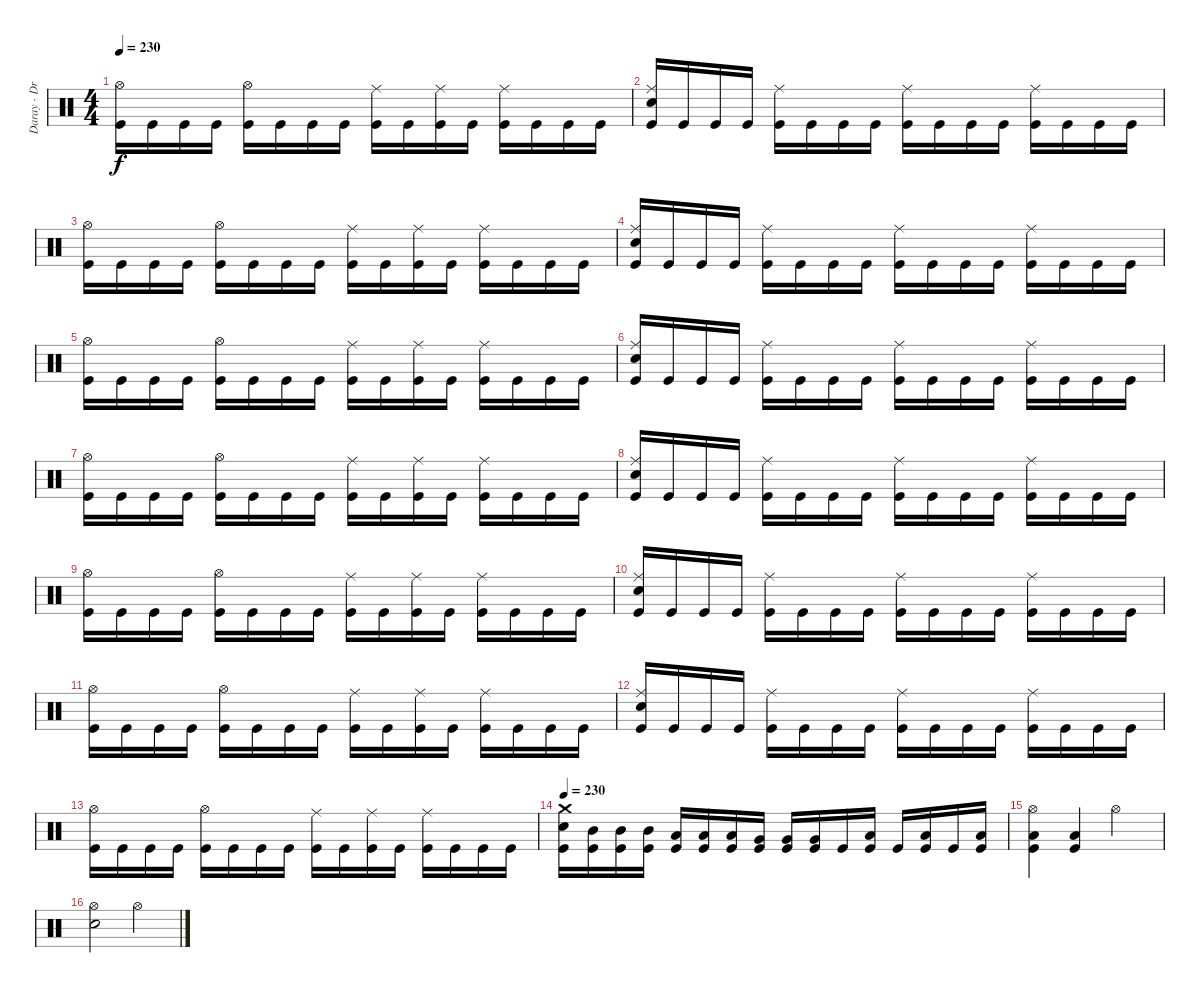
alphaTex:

\track ("Daray - Drums" "Daray - Dr") {instrument percussion}
\staff {score}
\articulation defaults
\ts (4 4)
\tempo 230
\clef neutral
\ks c
("Hi-Hat (open)" "Kick (hit)").16{dy f} "Kick (hit)".16 "Kick (hit)".16 "Kick (hit)".16 ("Hi-Hat (open)" "Kick (hit)").16 "Kick (hit)".16 "Kick (hit)".16 "Kick (hit)".16 ("Ride (middle)" "Kick (hit)").16 "Kick (hit)".16 ("Ride (middle)" "Kick (hit)").16 "Kick (hit)".16 ("Ride (middle)" "Kick (hit)").16 "Kick (hit)".16 "Kick (hit)".16 "Kick (hit)".16 |
("Ride (middle)" "Electric Snare (hit)" "Kick (hit)").16 "Kick (hit)".16 "Kick (hit)".16 "Kick (hit)".16 ("Ride (middle)" "Kick (hit)").16 "Kick (hit)".16 "Kick (hit)".16 "Kick (hit)".16 ("Ride (middle)" "Kick (hit)").16 "Kick (hit)".16 "Kick (hit)".16 "Kick (hit)".16 ("Ride (middle)" "Kick (hit)").16 "Kick (hit)".16 "Kick (hit)".16 "Kick (hit)".16 |
("Hi-Hat (open)" "Kick (hit)").16 "Kick (hit)".16 "Kick (hit)".16 "Kick (hit)".16 ("Hi-Hat (open)" "Kick (hit)").16 "Kick (hit)".16 "Kick (hit)".16 "Kick (hit)".16 ("Ride (middle)" "Kick (hit)").16 "Kick (hit)".16 ("Ride (middle)" "Kick (hit)").16 "Kick (hit)".16 ("Ride (middle)" "Kick (hit)").16 "Kick (hit)".16 "Kick (hit)".16 "Kick (hit)".16 |
("Ride (middle)" "Electric Snare (hit)" "Kick (hit)").16 "Kick (hit)".16 "Kick (hit)".16 "Kick (hit)".16 ("Ride (middle)" "Kick (hit)").16 "Kick (hit)".16 "Kick (hit)".16 "Kick (hit)".16 ("Ride (middle)" "Kick (hit)").16 "Kick (hit)".16 "Kick (hit)".16 "Kick (hit)".16 ("Ride (middle)" "Kick (hit)").16 "Kick (hit)".16 "Kick (hit)".16 "Kick (hit)".16 |
("Hi-Hat (open)" "Kick (hit)").16 "Kick (hit)".16 "Kick (hit)".16 "Kick (hit)".16 ("Hi-Hat (open)" "Kick (hit)").16 "Kick (hit)".16 "Kick (hit)".16 "Kick (hit)".16 ("Ride (middle)" "Kick (hit)").16 "Kick (hit)".16 ("Ride (middle)" "Kick (hit)").16 "Kick (hit)".16 ("Ride (middle)" "Kick (hit)").16 "Kick (hit)".16 "Kick (hit)".16 "Kick (hit)".16 |
("Ride (middle)" "Electric Snare (hit)" "Kick (hit)").16 "Kick (hit)".16 "Kick (hit)".16 "Kick (hit)".16 ("Ride (middle)" "Kick (hit)").16 "Kick (hit)".16 "Kick (hit)".16 "Kick (hit)".16 ("Ride (middle)" "Kick (hit)").16 "Kick (hit)".16 "Kick (hit)".16 "Kick (hit)".16 ("Ride (middle)" "Kick (hit)").16 "Kick (hit)".16 "Kick (hit)".16 "Kick (hit)".16 |
("Hi-Hat (open)" "Kick (hit)").16 "Kick (hit)".16 "Kick (hit)".16 "Kick (hit)".16 ("Hi-Hat (open)" "Kick (hit)").16 "Kick (hit)".16 "Kick (hit)".16 "Kick (hit)".16 ("Ride (middle)" "Kick (hit)").16 "Kick (hit)".16 ("Ride (middle)" "Kick (hit)").16 "Kick (hit)".16 ("Ride (middle)" "Kick (hit)").16 "Kick (hit)".16 "Kick (hit)".16 "Kick (hit)".16 |
("Ride (middle)" "Electric Snare (hit)" "Kick (hit)").16 "Kick (hit)".16 "Kick (hit)".16 "Kick (hit)".16 ("Ride (middle)" "Kick (hit)").16 "Kick (hit)".16 "Kick (hit)".16 "Kick (hit)".16 ("Ride (middle)" "Kick (hit)").16 "Kick (hit)".16 "Kick (hit)".16 "Kick (hit)".16 ("Ride (middle)" "Kick (hit)").16 "Kick (hit)".16 "Kick (hit)".16 "Kick (hit)".16 |
("Hi-Hat (open)" "Kick (hit)").16 "Kick (hit)".16 "Kick (hit)".16 "Kick (hit)".16 ("Hi-Hat (open)" "Kick (hit)").16 "Kick (hit)".16 "Kick (hit)".16 "Kick (hit)".16 ("Ride (middle)" "Kick (hit)").16 "Kick (hit)".16 ("Ride (middle)" "Kick (hit)").16 "Kick (hit)".16 ("Ride (middle)" "Kick (hit)").16 "Kick (hit)".16 "Kick (hit)".16 "Kick (hit)".16 |
("Ride (middle)" "Electric Snare (hit)" "Kick (hit)").16 "Kick (hit)".16 "Kick (hit)".16 "Kick (hit)".16 ("Ride (middle)" "Kick (hit)").16 "Kick (hit)".16 "Kick (hit)".16 "Kick (hit)".16 ("Ride (middle)" "Kick (hit)").16 "Kick (hit)".16 "Kick (hit)".16 "Kick (hit)".16 ("Ride (middle)" "Kick (hit)").16 "Kick (hit)".16 "Kick (hit)".16 "Kick (hit)".16 |
("Hi-Hat (open)" "Kick (hit)").16 "Kick (hit)".16 "Kick (hit)".16 "Kick (hit)".16 ("Hi-Hat (open)" "Kick (hit)").16 "Kick (hit)".16 "Kick (hit)".16 "Kick (hit)".16 ("Ride (middle)" "Kick (hit)").16 "Kick (hit)".16 ("Ride (middle)" "Kick (hit)").16 "Kick (hit)".16 ("Ride (middle)" "Kick (hit)").16 "Kick (hit)".16 "Kick (hit)".16 "Kick (hit)".16 |
("Ride (middle)" "Electric Snare (hit)" "Kick (hit)").16 "Kick (hit)".16 "Kick (hit)".16 "Kick (hit)".16 ("Ride (middle)" "Kick (hit)").16 "Kick (hit)".16 "Kick (hit)".16 "Kick (hit)".16 ("Ride (middle)" "Kick (hit)").16 "Kick (hit)".16 "Kick (hit)".16 "Kick (hit)".16 ("Ride (middle)" "Kick (hit)").16 "Kick (hit)".16 "Kick (hit)".16 "Kick (hit)".16 |
("Hi-Hat (open)" "Kick (hit)").16 "Kick (hit)".16 "Kick (hit)".16 "Kick (hit)".16 ("Hi-Hat (open)" "Kick (hit)").16 "Kick (hit)".16 "Kick (hit)".16 "Kick (hit)".16 ("Ride (middle)" "Kick (hit)").16 "Kick (hit)".16 ("Ride (middle)" "Kick (hit)").16 "Kick (hit)".16 ("Ride (middle)" "Kick (hit)").16 "Kick (hit)".16 "Kick (hit)".16 "Kick (hit)".16 |
\tempo 230
("Crash medium (hit)" "Electric Snare (hit)" "Kick (hit)").16 ("Mid Tom (hit)" "Kick (hit)").16 ("Mid Tom (hit)" "Kick (hit)").16 ("Mid Tom (hit)" "Kick (hit)").16 ("Low Tom (hit)" "Kick (hit)").16 ("Low Tom (hit)" "Kick (hit)").16 ("Low Tom (hit)" "Kick (hit)").16 ("Very Low Tom (hit)" "Kick (hit)").16 ("Very Low Tom (hit)" "Kick (hit)").16 ("Very Low Tom (hit)" "Kick (hit)").16 "Kick (hit)".16 ("Low Floor Tom (hit)" "Kick (hit)").16 "Kick (hit)".16 ("Low Floor Tom (hit)" "Kick (hit)").16 "Kick (hit)".16 ("Low Floor Tom (hit)" "Kick (hit)").16 |
("Hi-Hat (open)" "Low Floor Tom (hit)" "Kick (hit)").4 ("Low Floor Tom (hit)" "Kick (hit)").4 "Hi-Hat (open)".2 |
("Hi-Hat (open)" "Electric Snare (hit)").2 "Hi-Hat (open)".2
